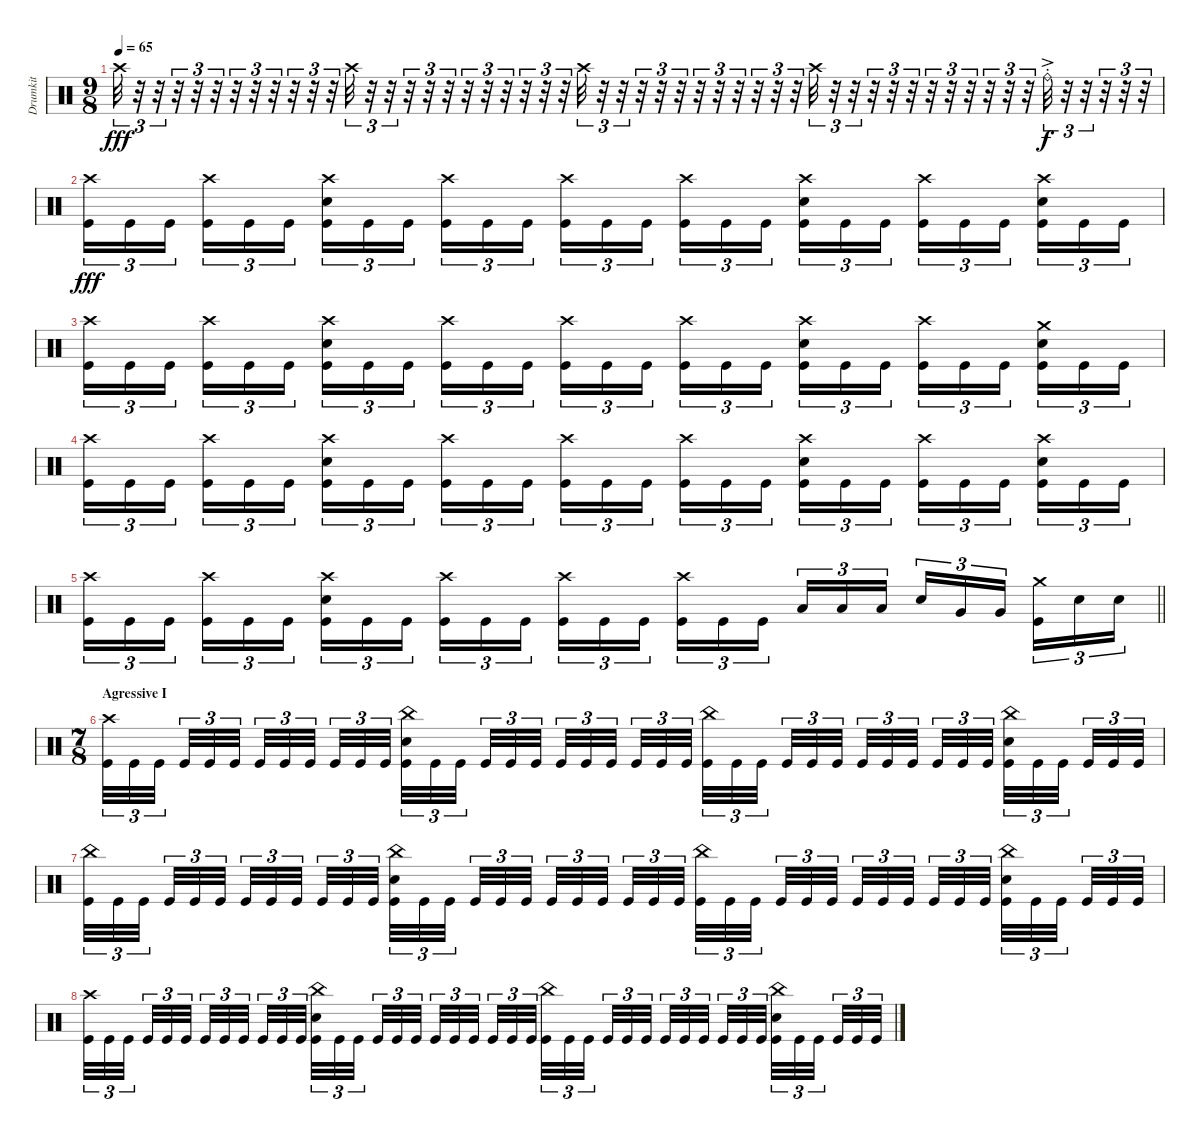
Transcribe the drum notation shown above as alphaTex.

\track ("Drumkit" "Drumkit") {instrument percussion}
\staff {score}
\articulation defaults
\ts (9 8)
\tempo 65
\clef neutral
\ks c "Crash high (hit)".32{tu (3 2) dy fff}
r.32{tu (3 2)} r.32{tu (3 2)} r.32{tu (3 2)} r.32{tu (3 2)} r.32{tu (3 2)} r.32{tu (3 2)} r.32{tu (3 2)} r.32{tu (3 2)} r.32{tu (3 2)} r.32{tu (3 2)} r.32{tu (3 2)} "Crash high (hit)".32{tu (3 2)} r.32{tu (3 2)} r.32{tu (3 2)} r.32{tu (3 2)} r.32{tu (3 2)} r.32{tu (3 2)} r.32{tu (3 2)} r.32{tu (3 2)} r.32{tu (3 2)} r.32{tu (3 2)} r.32{tu (3 2)} r.32{tu (3 2)} "Crash high (hit)".32{tu (3 2)} r.32{tu (3 2)} r.32{tu (3 2)} r.32{tu (3 2)} r.32{tu (3 2)} r.32{tu (3 2)} r.32{tu (3 2)} r.32{tu (3 2)} r.32{tu (3 2)} r.32{tu (3 2)} r.32{tu (3 2)} r.32{tu (3 2)} "Crash high (hit)".32{tu (3 2)} r.32{tu (3 2)} r.32{tu (3 2)} r.32{tu (3 2)} r.32{tu (3 2)} r.32{tu (3 2)} r.32{tu (3 2)} r.32{tu (3 2)} r.32{tu (3 2)} r.32{tu (3 2)} r.32{tu (3 2)} r.32{tu (3 2)} "Ride (bell)"{ac st}.32{tu (3 2) dy f} r.32{tu (3 2)} r.32{tu (3 2)} r.32{tu (3 2)} r.32{tu (3 2)} r.32{tu (3 2)} |
("Kick (hit)" "Crash high (hit)").16{tu (3 2) dy fff} "Kick (hit)".16{tu (3 2)} "Kick (hit)".16{tu (3 2) beam splitsecondary} ("Kick (hit)" "Crash high (hit)").16{tu (3 2)} "Kick (hit)".16{tu (3 2)} "Kick (hit)".16{tu (3 2) beam splitsecondary} ("Kick (hit)" "Crash high (hit)" "Snare (hit) 2").16{tu (3 2)} "Kick (hit)".16{tu (3 2)} "Kick (hit)".16{tu (3 2)} ("Kick (hit)" "Crash high (hit)").16{tu (3 2)} "Kick (hit)".16{tu (3 2)} "Kick (hit)".16{tu (3 2) beam splitsecondary} ("Kick (hit)" "Crash high (hit)").16{tu (3 2)} "Kick (hit)".16{tu (3 2)} "Kick (hit)".16{tu (3 2) beam splitsecondary} ("Kick (hit)" "Crash high (hit)").16{tu (3 2)} "Kick (hit)".16{tu (3 2)} "Kick (hit)".16{tu (3 2)} ("Kick (hit)" "Crash high (hit)" "Snare (hit) 2").16{tu (3 2)} "Kick (hit)".16{tu (3 2)} "Kick (hit)".16{tu (3 2) beam splitsecondary} ("Kick (hit)" "Crash high (hit)").16{tu (3 2)} "Kick (hit)".16{tu (3 2)} "Kick (hit)".16{tu (3 2) beam splitsecondary} ("Kick (hit)" "Crash high (hit)" "Snare (hit) 2").16{tu (3 2)} "Kick (hit)".16{tu (3 2)} "Kick (hit)".16{tu (3 2)} |
("Kick (hit)" "Crash high (hit)").16{tu (3 2)} "Kick (hit)".16{tu (3 2)} "Kick (hit)".16{tu (3 2) beam splitsecondary} ("Kick (hit)" "Crash high (hit)").16{tu (3 2)} "Kick (hit)".16{tu (3 2)} "Kick (hit)".16{tu (3 2) beam splitsecondary} ("Kick (hit)" "Crash high (hit)" "Snare (hit) 2").16{tu (3 2)} "Kick (hit)".16{tu (3 2)} "Kick (hit)".16{tu (3 2)} ("Kick (hit)" "Crash high (hit)").16{tu (3 2)} "Kick (hit)".16{tu (3 2)} "Kick (hit)".16{tu (3 2) beam splitsecondary} ("Kick (hit)" "Crash high (hit)").16{tu (3 2)} "Kick (hit)".16{tu (3 2)} "Kick (hit)".16{tu (3 2) beam splitsecondary} ("Kick (hit)" "Crash high (hit)").16{tu (3 2)} "Kick (hit)".16{tu (3 2)} "Kick (hit)".16{tu (3 2)} ("Kick (hit)" "Crash high (hit)" "Snare (hit) 2").16{tu (3 2)} "Kick (hit)".16{tu (3 2)} "Kick (hit)".16{tu (3 2) beam splitsecondary} ("Kick (hit)" "Crash high (hit)").16{tu (3 2)} "Kick (hit)".16{tu (3 2)} "Kick (hit)".16{tu (3 2) beam splitsecondary} ("Kick (hit)" "Snare (hit) 2" "Crash medium (hit)").16{tu (3 2)} "Kick (hit)".16{tu (3 2)} "Kick (hit)".16{tu (3 2)} |
("Kick (hit)" "Crash high (hit)").16{tu (3 2)} "Kick (hit)".16{tu (3 2)} "Kick (hit)".16{tu (3 2) beam splitsecondary} ("Kick (hit)" "Crash high (hit)").16{tu (3 2)} "Kick (hit)".16{tu (3 2)} "Kick (hit)".16{tu (3 2) beam splitsecondary} ("Kick (hit)" "Crash high (hit)" "Snare (hit) 2").16{tu (3 2)} "Kick (hit)".16{tu (3 2)} "Kick (hit)".16{tu (3 2)} ("Kick (hit)" "Crash high (hit)").16{tu (3 2)} "Kick (hit)".16{tu (3 2)} "Kick (hit)".16{tu (3 2) beam splitsecondary} ("Kick (hit)" "Crash high (hit)").16{tu (3 2)} "Kick (hit)".16{tu (3 2)} "Kick (hit)".16{tu (3 2) beam splitsecondary} ("Kick (hit)" "Crash high (hit)").16{tu (3 2)} "Kick (hit)".16{tu (3 2)} "Kick (hit)".16{tu (3 2)} ("Kick (hit)" "Crash high (hit)" "Snare (hit) 2").16{tu (3 2)} "Kick (hit)".16{tu (3 2)} "Kick (hit)".16{tu (3 2) beam splitsecondary} ("Kick (hit)" "Crash high (hit)").16{tu (3 2)} "Kick (hit)".16{tu (3 2)} "Kick (hit)".16{tu (3 2) beam splitsecondary} ("Kick (hit)" "Crash high (hit)" "Snare (hit) 2").16{tu (3 2)} "Kick (hit)".16{tu (3 2)} "Kick (hit)".16{tu (3 2)} |
\barLineRight lightlight
("Kick (hit)" "Crash high (hit)").16{tu (3 2)} "Kick (hit)".16{tu (3 2)} "Kick (hit)".16{tu (3 2) beam splitsecondary} ("Kick (hit)" "Crash high (hit)").16{tu (3 2)} "Kick (hit)".16{tu (3 2)} "Kick (hit)".16{tu (3 2) beam splitsecondary} ("Kick (hit)" "Crash high (hit)" "Snare (hit) 2").16{tu (3 2)} "Kick (hit)".16{tu (3 2)} "Kick (hit)".16{tu (3 2)} ("Kick (hit)" "Crash high (hit)").16{tu (3 2)} "Kick (hit)".16{tu (3 2)} "Kick (hit)".16{tu (3 2) beam splitsecondary} ("Kick (hit)" "Crash high (hit)").16{tu (3 2)} "Kick (hit)".16{tu (3 2)} "Kick (hit)".16{tu (3 2) beam splitsecondary} ("Kick (hit)" "Crash high (hit)").16{tu (3 2)} "Kick (hit)".16{tu (3 2)} "Kick (hit)".16{tu (3 2)} "Low Tom (hit)".16{tu (3 2)} "Low Tom (hit)".16{tu (3 2)} "Low Tom (hit)".16{tu (3 2) beam splitsecondary} "Snare (hit) 2".16{tu (3 2)} "Very Low Tom (hit)".16{tu (3 2)} "Very Low Tom (hit)".16{tu (3 2) beam splitsecondary} ("Crash medium (hit)" "Kick (hit)").16{tu (3 2)} "Snare (hit) 2".16{tu (3 2)} "Snare (hit) 2".16{tu (3 2)} |
\ts (7 8)
\section ("" "Agressive I")
("Kick (hit)" "Crash high (hit)").32{tu (3 2)} "Kick (hit)".32{tu (3 2)} "Kick (hit)".32{tu (3 2) beam splitsecondary} "Kick (hit)".32{tu (3 2)} "Kick (hit)".32{tu (3 2)} "Kick (hit)".32{tu (3 2)} "Kick (hit)".32{tu (3 2)} "Kick (hit)".32{tu (3 2)} "Kick (hit)".32{tu (3 2) beam splitsecondary} "Kick (hit)".32{tu (3 2)} "Kick (hit)".32{tu (3 2)} "Kick (hit)".32{tu (3 2)} ("Kick (hit)" "Snare (hit) 2" "China (hit)").32{tu (3 2)} "Kick (hit)".32{tu (3 2)} "Kick (hit)".32{tu (3 2) beam splitsecondary} "Kick (hit)".32{tu (3 2)} "Kick (hit)".32{tu (3 2)} "Kick (hit)".32{tu (3 2)} "Kick (hit)".32{tu (3 2)} "Kick (hit)".32{tu (3 2)} "Kick (hit)".32{tu (3 2) beam splitsecondary} "Kick (hit)".32{tu (3 2)} "Kick (hit)".32{tu (3 2)} "Kick (hit)".32{tu (3 2)} ("Kick (hit)" "China (hit)").32{tu (3 2)} "Kick (hit)".32{tu (3 2)} "Kick (hit)".32{tu (3 2) beam splitsecondary} "Kick (hit)".32{tu (3 2)} "Kick (hit)".32{tu (3 2)} "Kick (hit)".32{tu (3 2)} "Kick (hit)".32{tu (3 2)} "Kick (hit)".32{tu (3 2)} "Kick (hit)".32{tu (3 2) beam splitsecondary} "Kick (hit)".32{tu (3 2)} "Kick (hit)".32{tu (3 2)} "Kick (hit)".32{tu (3 2)} ("Kick (hit)" "Snare (hit) 2" "China (hit)").32{tu (3 2)} "Kick (hit)".32{tu (3 2)} "Kick (hit)".32{tu (3 2) beam splitsecondary} "Kick (hit)".32{tu (3 2)} "Kick (hit)".32{tu (3 2)} "Kick (hit)".32{tu (3 2)} |
("Kick (hit)" "China (hit)").32{tu (3 2)} "Kick (hit)".32{tu (3 2)} "Kick (hit)".32{tu (3 2) beam splitsecondary} "Kick (hit)".32{tu (3 2)} "Kick (hit)".32{tu (3 2)} "Kick (hit)".32{tu (3 2)} "Kick (hit)".32{tu (3 2)} "Kick (hit)".32{tu (3 2)} "Kick (hit)".32{tu (3 2) beam splitsecondary} "Kick (hit)".32{tu (3 2)} "Kick (hit)".32{tu (3 2)} "Kick (hit)".32{tu (3 2)} ("Kick (hit)" "Snare (hit) 2" "China (hit)").32{tu (3 2)} "Kick (hit)".32{tu (3 2)} "Kick (hit)".32{tu (3 2) beam splitsecondary} "Kick (hit)".32{tu (3 2)} "Kick (hit)".32{tu (3 2)} "Kick (hit)".32{tu (3 2)} "Kick (hit)".32{tu (3 2)} "Kick (hit)".32{tu (3 2)} "Kick (hit)".32{tu (3 2) beam splitsecondary} "Kick (hit)".32{tu (3 2)} "Kick (hit)".32{tu (3 2)} "Kick (hit)".32{tu (3 2)} ("Kick (hit)" "China (hit)").32{tu (3 2)} "Kick (hit)".32{tu (3 2)} "Kick (hit)".32{tu (3 2) beam splitsecondary} "Kick (hit)".32{tu (3 2)} "Kick (hit)".32{tu (3 2)} "Kick (hit)".32{tu (3 2)} "Kick (hit)".32{tu (3 2)} "Kick (hit)".32{tu (3 2)} "Kick (hit)".32{tu (3 2) beam splitsecondary} "Kick (hit)".32{tu (3 2)} "Kick (hit)".32{tu (3 2)} "Kick (hit)".32{tu (3 2)} ("Kick (hit)" "Snare (hit) 2" "China (hit)").32{tu (3 2)} "Kick (hit)".32{tu (3 2)} "Kick (hit)".32{tu (3 2) beam splitsecondary} "Kick (hit)".32{tu (3 2)} "Kick (hit)".32{tu (3 2)} "Kick (hit)".32{tu (3 2)} |
("Kick (hit)" "Crash high (hit)").32{tu (3 2)} "Kick (hit)".32{tu (3 2)} "Kick (hit)".32{tu (3 2) beam splitsecondary} "Kick (hit)".32{tu (3 2)} "Kick (hit)".32{tu (3 2)} "Kick (hit)".32{tu (3 2)} "Kick (hit)".32{tu (3 2)} "Kick (hit)".32{tu (3 2)} "Kick (hit)".32{tu (3 2) beam splitsecondary} "Kick (hit)".32{tu (3 2)} "Kick (hit)".32{tu (3 2)} "Kick (hit)".32{tu (3 2)} ("Kick (hit)" "Snare (hit) 2" "China (hit)").32{tu (3 2)} "Kick (hit)".32{tu (3 2)} "Kick (hit)".32{tu (3 2) beam splitsecondary} "Kick (hit)".32{tu (3 2)} "Kick (hit)".32{tu (3 2)} "Kick (hit)".32{tu (3 2)} "Kick (hit)".32{tu (3 2)} "Kick (hit)".32{tu (3 2)} "Kick (hit)".32{tu (3 2) beam splitsecondary} "Kick (hit)".32{tu (3 2)} "Kick (hit)".32{tu (3 2)} "Kick (hit)".32{tu (3 2)} ("Kick (hit)" "China (hit)").32{tu (3 2)} "Kick (hit)".32{tu (3 2)} "Kick (hit)".32{tu (3 2) beam splitsecondary} "Kick (hit)".32{tu (3 2)} "Kick (hit)".32{tu (3 2)} "Kick (hit)".32{tu (3 2)} "Kick (hit)".32{tu (3 2)} "Kick (hit)".32{tu (3 2)} "Kick (hit)".32{tu (3 2) beam splitsecondary} "Kick (hit)".32{tu (3 2)} "Kick (hit)".32{tu (3 2)} "Kick (hit)".32{tu (3 2)} ("Kick (hit)" "Snare (hit) 2" "China (hit)").32{tu (3 2)} "Kick (hit)".32{tu (3 2)} "Kick (hit)".32{tu (3 2) beam splitsecondary} "Kick (hit)".32{tu (3 2)} "Kick (hit)".32{tu (3 2)} "Kick (hit)".32{tu (3 2)}
